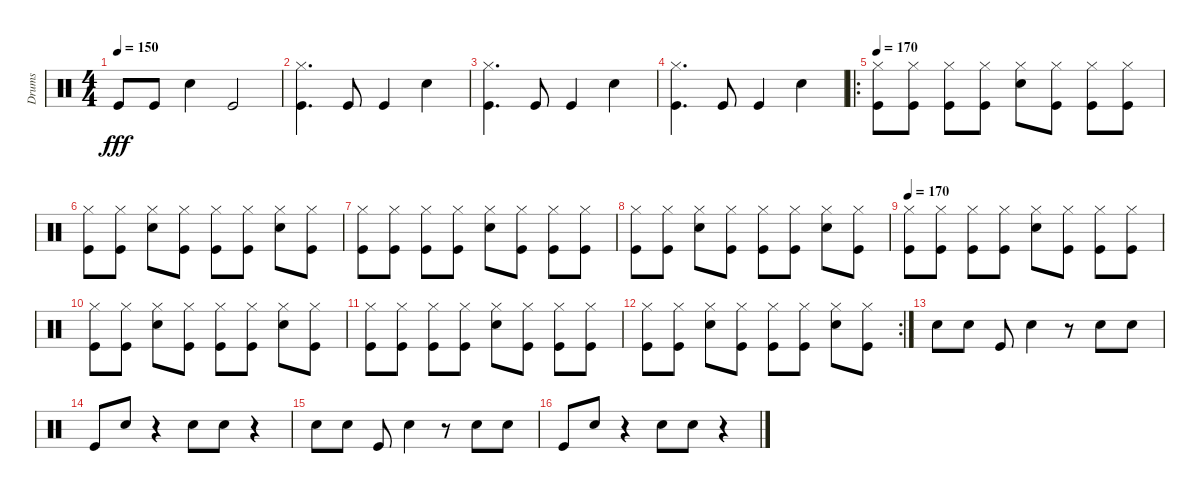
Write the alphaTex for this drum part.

\track ("Drums" "Drums") {instrument percussion}
\staff {score}
\articulation defaults
\ts (4 4)
\tempo 150
\clef neutral
\ks c "Kick (hit)".8{dy fff} "Kick (hit)".8 "Snare (hit) 2".4 "Kick (hit)".2
|
("Kick (hit)" "Hi-Hat (closed)").4{d} "Kick (hit)".8 "Kick (hit)".4 "Snare (hit) 2".4 |
("Kick (hit)" "Hi-Hat (closed)").4{d} "Kick (hit)".8 "Kick (hit)".4 "Snare (hit) 2".4 |
("Kick (hit)" "Hi-Hat (closed)").4{d} "Kick (hit)".8 "Kick (hit)".4 "Snare (hit) 2".4 |
\ro
\tempo 170
("Kick (hit)" "Hi-Hat (closed)").8 ("Kick (hit)" "Hi-Hat (closed)").8 ("Kick (hit)" "Hi-Hat (closed)").8 ("Kick (hit)" "Hi-Hat (closed)").8 ("Snare (hit) 2" "Hi-Hat (closed)").8 ("Kick (hit)" "Hi-Hat (closed)").8 ("Kick (hit)" "Hi-Hat (closed)").8 ("Kick (hit)" "Hi-Hat (closed)").8 |
("Kick (hit)" "Hi-Hat (closed)").8 ("Kick (hit)" "Hi-Hat (closed)").8 ("Snare (hit) 2" "Hi-Hat (closed)").8 ("Kick (hit)" "Hi-Hat (closed)").8 ("Kick (hit)" "Hi-Hat (closed)").8 ("Kick (hit)" "Hi-Hat (closed)").8 ("Snare (hit) 2" "Hi-Hat (closed)").8 ("Kick (hit)" "Hi-Hat (closed)").8 |
("Kick (hit)" "Hi-Hat (closed)").8 ("Kick (hit)" "Hi-Hat (closed)").8 ("Kick (hit)" "Hi-Hat (closed)").8 ("Kick (hit)" "Hi-Hat (closed)").8 ("Snare (hit) 2" "Hi-Hat (closed)").8 ("Kick (hit)" "Hi-Hat (closed)").8 ("Kick (hit)" "Hi-Hat (closed)").8 ("Kick (hit)" "Hi-Hat (closed)").8 |
("Kick (hit)" "Hi-Hat (closed)").8 ("Kick (hit)" "Hi-Hat (closed)").8 ("Snare (hit) 2" "Hi-Hat (closed)").8 ("Kick (hit)" "Hi-Hat (closed)").8 ("Kick (hit)" "Hi-Hat (closed)").8 ("Kick (hit)" "Hi-Hat (closed)").8 ("Snare (hit) 2" "Hi-Hat (closed)").8 ("Kick (hit)" "Hi-Hat (closed)").8 |
\tempo 170
("Kick (hit)" "Hi-Hat (closed)").8 ("Kick (hit)" "Hi-Hat (closed)").8 ("Kick (hit)" "Hi-Hat (closed)").8 ("Kick (hit)" "Hi-Hat (closed)").8 ("Snare (hit) 2" "Hi-Hat (closed)").8 ("Kick (hit)" "Hi-Hat (closed)").8 ("Kick (hit)" "Hi-Hat (closed)").8 ("Kick (hit)" "Hi-Hat (closed)").8 |
("Kick (hit)" "Hi-Hat (closed)").8 ("Kick (hit)" "Hi-Hat (closed)").8 ("Snare (hit) 2" "Hi-Hat (closed)").8 ("Kick (hit)" "Hi-Hat (closed)").8 ("Kick (hit)" "Hi-Hat (closed)").8 ("Kick (hit)" "Hi-Hat (closed)").8 ("Snare (hit) 2" "Hi-Hat (closed)").8 ("Kick (hit)" "Hi-Hat (closed)").8 |
("Kick (hit)" "Hi-Hat (closed)").8 ("Kick (hit)" "Hi-Hat (closed)").8 ("Kick (hit)" "Hi-Hat (closed)").8 ("Kick (hit)" "Hi-Hat (closed)").8 ("Snare (hit) 2" "Hi-Hat (closed)").8 ("Kick (hit)" "Hi-Hat (closed)").8 ("Kick (hit)" "Hi-Hat (closed)").8 ("Kick (hit)" "Hi-Hat (closed)").8 |
\rc 2
("Kick (hit)" "Hi-Hat (closed)").8 ("Kick (hit)" "Hi-Hat (closed)").8 ("Snare (hit) 2" "Hi-Hat (closed)").8 ("Kick (hit)" "Hi-Hat (closed)").8 ("Kick (hit)" "Hi-Hat (closed)").8 ("Kick (hit)" "Hi-Hat (closed)").8 ("Snare (hit) 2" "Hi-Hat (closed)").8 ("Kick (hit)" "Hi-Hat (closed)").8 |
"Snare (hit) 2".8 "Snare (hit) 2".8 "Kick (hit)".8 "Snare (hit) 2".4 r.8 "Snare (hit) 2".8 "Snare (hit) 2".8 |
"Kick (hit)".8 "Snare (hit) 2".8 r.4 "Snare (hit) 2".8 "Snare (hit) 2".8 r.4 |
"Snare (hit) 2".8 "Snare (hit) 2".8 "Kick (hit)".8 "Snare (hit) 2".4 r.8 "Snare (hit) 2".8 "Snare (hit) 2".8 |
"Kick (hit)".8 "Snare (hit) 2".8 r.4 "Snare (hit) 2".8 "Snare (hit) 2".8 r.4
